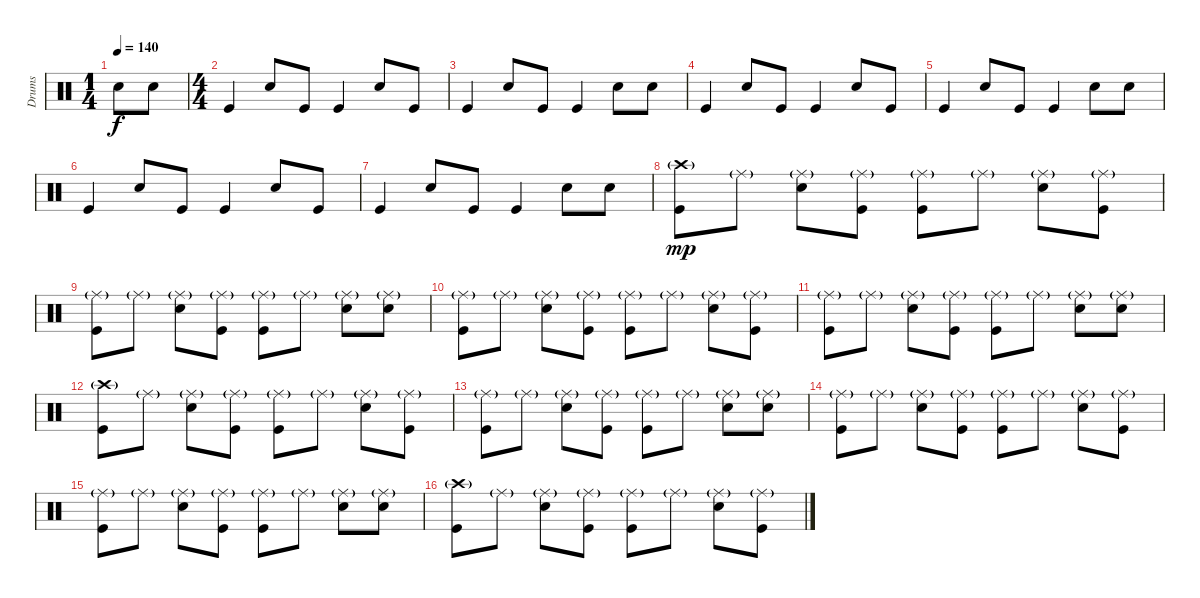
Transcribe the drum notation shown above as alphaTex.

\track ("Drums" "Drums") {instrument percussion}
\staff {score}
\articulation defaults
\ts (1 4)
\tempo 140
\clef neutral
\ks c "Electric Snare (hit)".8{dy f} "Electric Snare (hit)".8
|
\ts (4 4)
"Kick (hit)".4 "Electric Snare (hit)".8 "Kick (hit)".8 "Kick (hit)".4 "Electric Snare (hit)".8 "Kick (hit)".8 |
"Kick (hit)".4 "Electric Snare (hit)".8 "Kick (hit)".8 "Kick (hit)".4 "Electric Snare (hit)".8 "Electric Snare (hit)".8 |
"Kick (hit)".4 "Electric Snare (hit)".8 "Kick (hit)".8 "Kick (hit)".4 "Electric Snare (hit)".8 "Kick (hit)".8 |
"Kick (hit)".4 "Electric Snare (hit)".8 "Kick (hit)".8 "Kick (hit)".4 "Electric Snare (hit)".8 "Electric Snare (hit)".8 |
"Kick (hit)".4 "Electric Snare (hit)".8 "Kick (hit)".8 "Kick (hit)".4 "Electric Snare (hit)".8 "Kick (hit)".8 |
"Kick (hit)".4 "Electric Snare (hit)".8 "Kick (hit)".8 "Kick (hit)".4 "Electric Snare (hit)".8 "Electric Snare (hit)".8 |
("Crash high (hit)"{g} "Kick (hit)").8{dy mp} "Ride (middle)"{g}.8 ("Ride (middle)"{g} "Electric Snare (hit)").8 ("Ride (middle)"{g} "Kick (hit)").8 ("Ride (middle)"{g} "Kick (hit)").8 "Ride (middle)"{g}.8 ("Ride (middle)"{g} "Electric Snare (hit)").8 ("Ride (middle)"{g} "Kick (hit)").8 |
("Ride (middle)"{g} "Kick (hit)").8 "Ride (middle)"{g}.8 ("Ride (middle)"{g} "Electric Snare (hit)").8 ("Ride (middle)"{g} "Kick (hit)").8 ("Ride (middle)"{g} "Kick (hit)").8 "Ride (middle)"{g}.8 ("Ride (middle)"{g} "Electric Snare (hit)").8 ("Ride (middle)"{g} "Electric Snare (hit)").8 |
("Ride (middle)"{g} "Kick (hit)").8 "Ride (middle)"{g}.8 ("Ride (middle)"{g} "Electric Snare (hit)").8 ("Ride (middle)"{g} "Kick (hit)").8 ("Ride (middle)"{g} "Kick (hit)").8 "Ride (middle)"{g}.8 ("Ride (middle)"{g} "Electric Snare (hit)").8 ("Ride (middle)"{g} "Kick (hit)").8 |
("Ride (middle)"{g} "Kick (hit)").8 "Ride (middle)"{g}.8 ("Ride (middle)"{g} "Electric Snare (hit)").8 ("Ride (middle)"{g} "Kick (hit)").8 ("Ride (middle)"{g} "Kick (hit)").8 "Ride (middle)"{g}.8 ("Ride (middle)"{g} "Electric Snare (hit)").8 ("Ride (middle)"{g} "Electric Snare (hit)").8 |
("Crash high (hit)"{g} "Kick (hit)").8 "Ride (middle)"{g}.8 ("Ride (middle)"{g} "Electric Snare (hit)").8 ("Ride (middle)"{g} "Kick (hit)").8 ("Ride (middle)"{g} "Kick (hit)").8 "Ride (middle)"{g}.8 ("Ride (middle)"{g} "Electric Snare (hit)").8 ("Ride (middle)"{g} "Kick (hit)").8 |
("Ride (middle)"{g} "Kick (hit)").8 "Ride (middle)"{g}.8 ("Ride (middle)"{g} "Electric Snare (hit)").8 ("Ride (middle)"{g} "Kick (hit)").8 ("Ride (middle)"{g} "Kick (hit)").8 "Ride (middle)"{g}.8 ("Ride (middle)"{g} "Electric Snare (hit)").8 ("Ride (middle)"{g} "Electric Snare (hit)").8 |
("Ride (middle)"{g} "Kick (hit)").8 "Ride (middle)"{g}.8 ("Ride (middle)"{g} "Electric Snare (hit)").8 ("Ride (middle)"{g} "Kick (hit)").8 ("Ride (middle)"{g} "Kick (hit)").8 "Ride (middle)"{g}.8 ("Ride (middle)"{g} "Electric Snare (hit)").8 ("Ride (middle)"{g} "Kick (hit)").8 |
("Ride (middle)"{g} "Kick (hit)").8 "Ride (middle)"{g}.8 ("Ride (middle)"{g} "Electric Snare (hit)").8 ("Ride (middle)"{g} "Kick (hit)").8 ("Ride (middle)"{g} "Kick (hit)").8 "Ride (middle)"{g}.8 ("Ride (middle)"{g} "Electric Snare (hit)").8 ("Ride (middle)"{g} "Electric Snare (hit)").8 |
("Crash high (hit)"{g} "Kick (hit)").8 "Ride (middle)"{g}.8 ("Ride (middle)"{g} "Electric Snare (hit)").8 ("Ride (middle)"{g} "Kick (hit)").8 ("Ride (middle)"{g} "Kick (hit)").8 "Ride (middle)"{g}.8 ("Ride (middle)"{g} "Electric Snare (hit)").8 ("Ride (middle)"{g} "Kick (hit)").8
